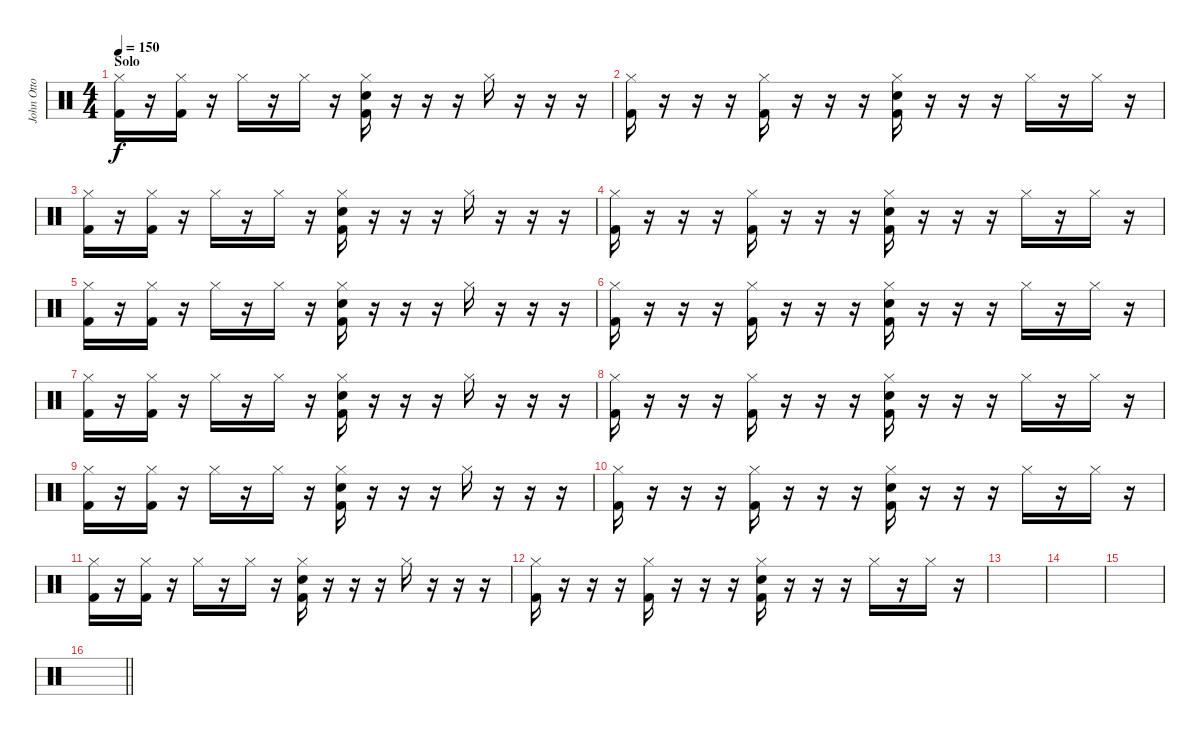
\track ("John Otto" "John Otto") {instrument percussion}
\staff {score}
\articulation defaults
\ts (4 4)
\section ("" "Solo")
\tempo 150
\clef neutral
\ks c
("Hi-Hat (closed)" "Kick (hit) 2").16{dy f} r.16 ("Hi-Hat (closed)" "Kick (hit) 2").16 r.16 "Hi-Hat (closed)".16 r.16 "Hi-Hat (closed)".16 r.16 ("Hi-Hat (closed)" "Snare (hit) 2" "Kick (hit) 2").16 r.16 r.16 r.16 "Hi-Hat (closed)".16 r.16 r.16 r.16 |
("Hi-Hat (closed)" "Kick (hit) 2").16 r.16 r.16 r.16 ("Hi-Hat (closed)" "Kick (hit) 2").16 r.16 r.16 r.16 ("Hi-Hat (closed)" "Snare (hit) 2" "Kick (hit) 2").16 r.16 r.16 r.16 "Hi-Hat (closed)".16 r.16 "Hi-Hat (closed)".16 r.16 |
("Hi-Hat (closed)" "Kick (hit) 2").16 r.16 ("Hi-Hat (closed)" "Kick (hit) 2").16 r.16 "Hi-Hat (closed)".16 r.16 "Hi-Hat (closed)".16 r.16 ("Hi-Hat (closed)" "Snare (hit) 2" "Kick (hit) 2").16 r.16 r.16 r.16 "Hi-Hat (closed)".16 r.16 r.16 r.16 |
("Hi-Hat (closed)" "Kick (hit) 2").16 r.16 r.16 r.16 ("Hi-Hat (closed)" "Kick (hit) 2").16 r.16 r.16 r.16 ("Hi-Hat (closed)" "Snare (hit) 2" "Kick (hit) 2").16 r.16 r.16 r.16 "Hi-Hat (closed)".16 r.16 "Hi-Hat (closed)".16 r.16 |
("Hi-Hat (closed)" "Kick (hit) 2").16 r.16 ("Hi-Hat (closed)" "Kick (hit) 2").16 r.16 "Hi-Hat (closed)".16 r.16 "Hi-Hat (closed)".16 r.16 ("Hi-Hat (closed)" "Snare (hit) 2" "Kick (hit) 2").16 r.16 r.16 r.16 "Hi-Hat (closed)".16 r.16 r.16 r.16 |
("Hi-Hat (closed)" "Kick (hit) 2").16 r.16 r.16 r.16 ("Hi-Hat (closed)" "Kick (hit) 2").16 r.16 r.16 r.16 ("Hi-Hat (closed)" "Snare (hit) 2" "Kick (hit) 2").16 r.16 r.16 r.16 "Hi-Hat (closed)".16 r.16 "Hi-Hat (closed)".16 r.16 |
("Hi-Hat (closed)" "Kick (hit) 2").16 r.16 ("Hi-Hat (closed)" "Kick (hit) 2").16 r.16 "Hi-Hat (closed)".16 r.16 "Hi-Hat (closed)".16 r.16 ("Hi-Hat (closed)" "Snare (hit) 2" "Kick (hit) 2").16 r.16 r.16 r.16 "Hi-Hat (closed)".16 r.16 r.16 r.16 |
("Hi-Hat (closed)" "Kick (hit) 2").16 r.16 r.16 r.16 ("Hi-Hat (closed)" "Kick (hit) 2").16 r.16 r.16 r.16 ("Hi-Hat (closed)" "Snare (hit) 2" "Kick (hit) 2").16 r.16 r.16 r.16 "Hi-Hat (closed)".16 r.16 "Hi-Hat (closed)".16 r.16 |
("Hi-Hat (closed)" "Kick (hit) 2").16 r.16 ("Hi-Hat (closed)" "Kick (hit) 2").16 r.16 "Hi-Hat (closed)".16 r.16 "Hi-Hat (closed)".16 r.16 ("Hi-Hat (closed)" "Snare (hit) 2" "Kick (hit) 2").16 r.16 r.16 r.16 "Hi-Hat (closed)".16 r.16 r.16 r.16 |
("Hi-Hat (closed)" "Kick (hit) 2").16 r.16 r.16 r.16 ("Hi-Hat (closed)" "Kick (hit) 2").16 r.16 r.16 r.16 ("Hi-Hat (closed)" "Snare (hit) 2" "Kick (hit) 2").16 r.16 r.16 r.16 "Hi-Hat (closed)".16 r.16 "Hi-Hat (closed)".16 r.16 |
("Hi-Hat (closed)" "Kick (hit) 2").16 r.16 ("Hi-Hat (closed)" "Kick (hit) 2").16 r.16 "Hi-Hat (closed)".16 r.16 "Hi-Hat (closed)".16 r.16 ("Hi-Hat (closed)" "Snare (hit) 2" "Kick (hit) 2").16 r.16 r.16 r.16 "Hi-Hat (closed)".16 r.16 r.16 r.16 |
("Hi-Hat (closed)" "Kick (hit) 2").16 r.16 r.16 r.16 ("Hi-Hat (closed)" "Kick (hit) 2").16 r.16 r.16 r.16 ("Hi-Hat (closed)" "Snare (hit) 2" "Kick (hit) 2").16 r.16 r.16 r.16 "Hi-Hat (closed)".16 r.16 "Hi-Hat (closed)".16 r.16 |
|
|
|
\barLineRight lightlight
